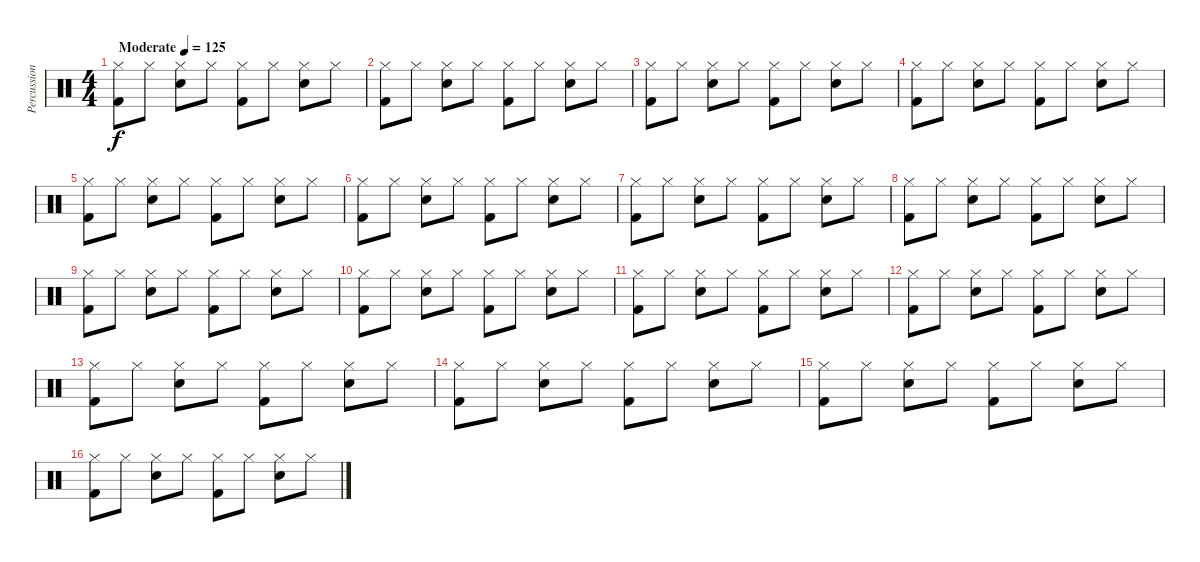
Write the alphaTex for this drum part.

\track ("Percussion" "Percussion") {instrument percussion}
\staff {score}
\articulation defaults
\ts (4 4)
\tempo (125 "Moderate")
\clef neutral
\ks c
("Hi-Hat (closed)" "Kick (hit) 2").8{dy f} "Hi-Hat (closed)".8 ("Hi-Hat (closed)" "Snare (hit) 2").8 "Hi-Hat (closed)".8 ("Hi-Hat (closed)" "Kick (hit) 2").8 "Hi-Hat (closed)".8 ("Hi-Hat (closed)" "Snare (hit) 2").8 "Hi-Hat (closed)".8 |
("Hi-Hat (closed)" "Kick (hit) 2").8 "Hi-Hat (closed)".8 ("Hi-Hat (closed)" "Snare (hit) 2").8 "Hi-Hat (closed)".8 ("Hi-Hat (closed)" "Kick (hit) 2").8 "Hi-Hat (closed)".8 ("Hi-Hat (closed)" "Snare (hit) 2").8 "Hi-Hat (closed)".8 |
("Hi-Hat (closed)" "Kick (hit) 2").8 "Hi-Hat (closed)".8 ("Hi-Hat (closed)" "Snare (hit) 2").8 "Hi-Hat (closed)".8 ("Hi-Hat (closed)" "Kick (hit) 2").8 "Hi-Hat (closed)".8 ("Hi-Hat (closed)" "Snare (hit) 2").8 "Hi-Hat (closed)".8 |
("Hi-Hat (closed)" "Kick (hit) 2").8 "Hi-Hat (closed)".8 ("Hi-Hat (closed)" "Snare (hit) 2").8 "Hi-Hat (closed)".8 ("Hi-Hat (closed)" "Kick (hit) 2").8 "Hi-Hat (closed)".8 ("Hi-Hat (closed)" "Snare (hit) 2").8 "Hi-Hat (closed)".8 |
("Hi-Hat (closed)" "Kick (hit) 2").8 "Hi-Hat (closed)".8 ("Hi-Hat (closed)" "Snare (hit) 2").8 "Hi-Hat (closed)".8 ("Hi-Hat (closed)" "Kick (hit) 2").8 "Hi-Hat (closed)".8 ("Hi-Hat (closed)" "Snare (hit) 2").8 "Hi-Hat (closed)".8 |
("Hi-Hat (closed)" "Kick (hit) 2").8 "Hi-Hat (closed)".8 ("Hi-Hat (closed)" "Snare (hit) 2").8 "Hi-Hat (closed)".8 ("Hi-Hat (closed)" "Kick (hit) 2").8 "Hi-Hat (closed)".8 ("Hi-Hat (closed)" "Snare (hit) 2").8 "Hi-Hat (closed)".8 |
("Hi-Hat (closed)" "Kick (hit) 2").8 "Hi-Hat (closed)".8 ("Hi-Hat (closed)" "Snare (hit) 2").8 "Hi-Hat (closed)".8 ("Hi-Hat (closed)" "Kick (hit) 2").8 "Hi-Hat (closed)".8 ("Hi-Hat (closed)" "Snare (hit) 2").8 "Hi-Hat (closed)".8 |
("Hi-Hat (closed)" "Kick (hit) 2").8 "Hi-Hat (closed)".8 ("Hi-Hat (closed)" "Snare (hit) 2").8 "Hi-Hat (closed)".8 ("Hi-Hat (closed)" "Kick (hit) 2").8 "Hi-Hat (closed)".8 ("Hi-Hat (closed)" "Snare (hit) 2").8 "Hi-Hat (closed)".8 |
("Hi-Hat (closed)" "Kick (hit) 2").8 "Hi-Hat (closed)".8 ("Hi-Hat (closed)" "Snare (hit) 2").8 "Hi-Hat (closed)".8 ("Hi-Hat (closed)" "Kick (hit) 2").8 "Hi-Hat (closed)".8 ("Hi-Hat (closed)" "Snare (hit) 2").8 "Hi-Hat (closed)".8 |
("Hi-Hat (closed)" "Kick (hit) 2").8 "Hi-Hat (closed)".8 ("Hi-Hat (closed)" "Snare (hit) 2").8 "Hi-Hat (closed)".8 ("Hi-Hat (closed)" "Kick (hit) 2").8 "Hi-Hat (closed)".8 ("Hi-Hat (closed)" "Snare (hit) 2").8 "Hi-Hat (closed)".8 |
("Hi-Hat (closed)" "Kick (hit) 2").8 "Hi-Hat (closed)".8 ("Hi-Hat (closed)" "Snare (hit) 2").8 "Hi-Hat (closed)".8 ("Hi-Hat (closed)" "Kick (hit) 2").8 "Hi-Hat (closed)".8 ("Hi-Hat (closed)" "Snare (hit) 2").8 "Hi-Hat (closed)".8 |
("Hi-Hat (closed)" "Kick (hit) 2").8 "Hi-Hat (closed)".8 ("Hi-Hat (closed)" "Snare (hit) 2").8 "Hi-Hat (closed)".8 ("Hi-Hat (closed)" "Kick (hit) 2").8 "Hi-Hat (closed)".8 ("Hi-Hat (closed)" "Snare (hit) 2").8 "Hi-Hat (closed)".8 |
("Hi-Hat (closed)" "Kick (hit) 2").8 "Hi-Hat (closed)".8 ("Hi-Hat (closed)" "Snare (hit) 2").8 "Hi-Hat (closed)".8 ("Hi-Hat (closed)" "Kick (hit) 2").8 "Hi-Hat (closed)".8 ("Hi-Hat (closed)" "Snare (hit) 2").8 "Hi-Hat (closed)".8 |
("Hi-Hat (closed)" "Kick (hit) 2").8 "Hi-Hat (closed)".8 ("Hi-Hat (closed)" "Snare (hit) 2").8 "Hi-Hat (closed)".8 ("Hi-Hat (closed)" "Kick (hit) 2").8 "Hi-Hat (closed)".8 ("Hi-Hat (closed)" "Snare (hit) 2").8 "Hi-Hat (closed)".8 |
("Hi-Hat (closed)" "Kick (hit) 2").8 "Hi-Hat (closed)".8 ("Hi-Hat (closed)" "Snare (hit) 2").8 "Hi-Hat (closed)".8 ("Hi-Hat (closed)" "Kick (hit) 2").8 "Hi-Hat (closed)".8 ("Hi-Hat (closed)" "Snare (hit) 2").8 "Hi-Hat (closed)".8 |
("Hi-Hat (closed)" "Kick (hit) 2").8 "Hi-Hat (closed)".8 ("Hi-Hat (closed)" "Snare (hit) 2").8 "Hi-Hat (closed)".8 ("Hi-Hat (closed)" "Kick (hit) 2").8 "Hi-Hat (closed)".8 ("Hi-Hat (closed)" "Snare (hit) 2").8 "Hi-Hat (closed)".8
